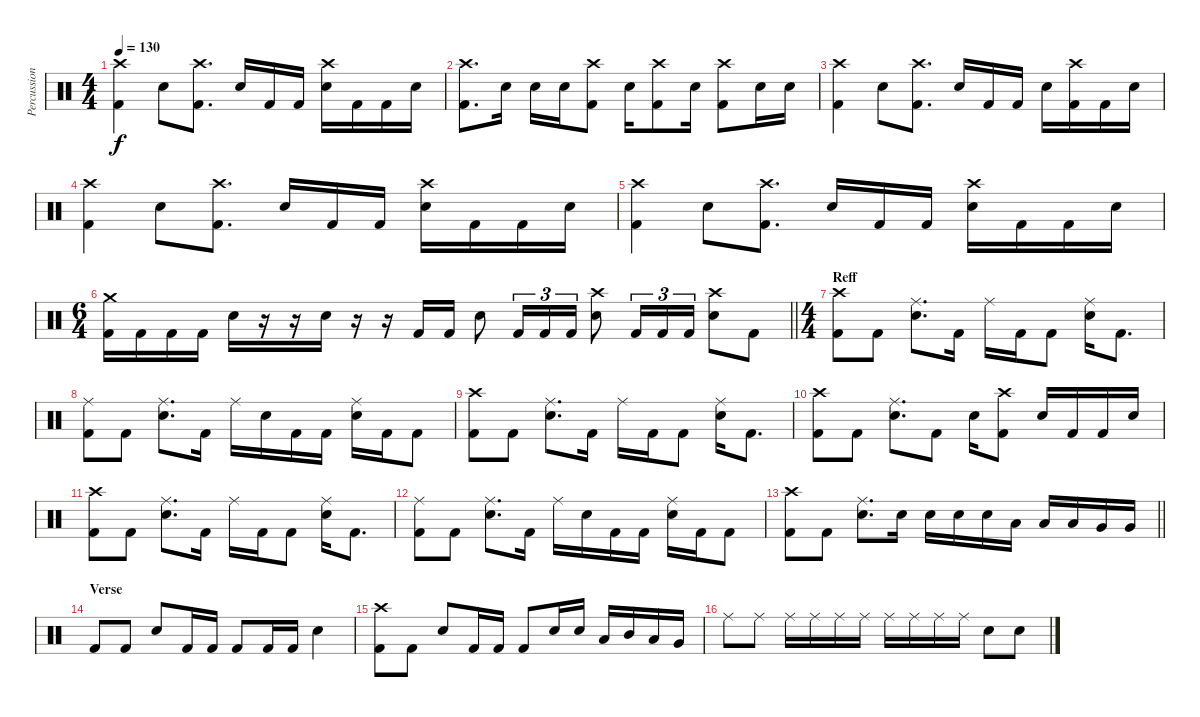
\track ("Percussion" "Percussion") {instrument percussion}
\staff {score}
\articulation defaults
\ts (4 4)
\tempo 130
\clef neutral
\ks c
("Kick (hit) 2" "Crash high (hit)").4{dy f} "Snare (hit) 2".8 ("Kick (hit) 2" "Crash high (hit)").8{d} "Snare (hit) 2".16 "Kick (hit) 2".16 "Kick (hit) 2".16 ("Snare (hit) 2" "Crash high (hit)").16 "Kick (hit) 2".16 "Kick (hit) 2".16 "Snare (hit) 2".16 |
("Kick (hit) 2" "Crash high (hit)").8{d} "Snare (hit) 2".16 "Snare (hit) 2".16 "Snare (hit) 2".16 ("Kick (hit) 2" "Crash high (hit)").8 "Snare (hit) 2".16 ("Kick (hit) 2" "Crash high (hit)").8 "Snare (hit) 2".16 ("Kick (hit) 2" "Crash high (hit)").8 "Snare (hit) 2".16 "Snare (hit) 2".16 |
("Kick (hit) 2" "Crash high (hit)").4 "Snare (hit) 2".8 ("Kick (hit) 2" "Crash high (hit)").8{d} "Snare (hit) 2".16 "Kick (hit) 2".16 "Kick (hit) 2".16 "Snare (hit) 2".16 ("Kick (hit) 2" "Crash high (hit)").16 "Kick (hit) 2".16 "Snare (hit) 2".16 |
("Kick (hit) 2" "Crash high (hit)").4 "Snare (hit) 2".8 ("Kick (hit) 2" "Crash high (hit)").8{d} "Snare (hit) 2".16 "Kick (hit) 2".16 "Kick (hit) 2".16 ("Snare (hit) 2" "Crash high (hit)").16 "Kick (hit) 2".16 "Kick (hit) 2".16 "Snare (hit) 2".16 |
("Kick (hit) 2" "Crash high (hit)").4 "Snare (hit) 2".8 ("Kick (hit) 2" "Crash high (hit)").8{d} "Snare (hit) 2".16 "Kick (hit) 2".16 "Kick (hit) 2".16 ("Snare (hit) 2" "Crash high (hit)").16 "Kick (hit) 2".16 "Kick (hit) 2".16 "Snare (hit) 2".16 |
\ts (6 4)
\barLineRight lightlight
("Kick (hit) 2" "Crash medium (hit)").16 "Kick (hit) 2".16 "Kick (hit) 2".16 "Kick (hit) 2".16 "Snare (hit) 2".16 r.16 r.16 "Snare (hit) 2".16 r.16 r.16 "Kick (hit) 2".16 "Kick (hit) 2".16 "Snare (hit) 2".8 "Kick (hit) 2".16{tu (3 2)} "Kick (hit) 2".16{tu (3 2)} "Kick (hit) 2".16{tu (3 2)} ("Snare (hit) 2" "Crash high (hit)").8 "Kick (hit) 2".16{tu (3 2)} "Kick (hit) 2".16{tu (3 2)} "Kick (hit) 2".16{tu (3 2)} ("Snare (hit) 2" "Crash high (hit)").8 "Kick (hit) 2".8 |
\ts (4 4)
\section ("" "Reff")
("Kick (hit) 2" "Crash high (hit)").8 "Kick (hit) 2".8 ("Snare (hit) 2" "Ride (middle)").8{d} "Kick (hit) 2".16 "Ride (middle)".16 "Kick (hit) 2".16 "Kick (hit) 2".8 ("Snare (hit) 2" "Ride (middle)").16 "Kick (hit) 2".8{d} |
("Kick (hit) 2" "Ride (middle)").8 "Kick (hit) 2".8 ("Snare (hit) 2" "Ride (middle)").8{d} "Kick (hit) 2".16 "Ride (middle)".16 "Snare (hit) 2".16 "Kick (hit) 2".16 "Kick (hit) 2".16 ("Snare (hit) 2" "Ride (middle)").16 "Kick (hit) 2".16 "Kick (hit) 2".8 |
("Kick (hit) 2" "Crash high (hit)").8 "Kick (hit) 2".8 ("Snare (hit) 2" "Ride (middle)").8{d} "Kick (hit) 2".16 "Ride (middle)".16 "Kick (hit) 2".16 "Kick (hit) 2".8 ("Snare (hit) 2" "Ride (middle)").16 "Kick (hit) 2".8{d} |
("Kick (hit) 2" "Crash high (hit)").8 "Kick (hit) 2".8 ("Snare (hit) 2" "Ride (middle)").8{d} "Kick (hit) 2".8 "Snare (hit) 2".16 ("Kick (hit) 2" "Crash high (hit)").8 "Snare (hit) 2".16 "Kick (hit) 2".16 "Kick (hit) 2".16 "Snare (hit) 2".16 |
("Kick (hit) 2" "Crash high (hit)").8 "Kick (hit) 2".8 ("Snare (hit) 2" "Ride (middle)").8{d} "Kick (hit) 2".16 "Ride (middle)".16 "Kick (hit) 2".16 "Kick (hit) 2".8 ("Snare (hit) 2" "Ride (middle)").16 "Kick (hit) 2".8{d} |
("Kick (hit) 2" "Ride (middle)").8 "Kick (hit) 2".8 ("Snare (hit) 2" "Ride (middle)").8{d} "Kick (hit) 2".16 "Ride (middle)".16 "Snare (hit) 2".16 "Kick (hit) 2".16 "Kick (hit) 2".16 ("Snare (hit) 2" "Ride (middle)").16 "Kick (hit) 2".16 "Kick (hit) 2".8 |
\barLineRight lightlight
("Kick (hit) 2" "Crash high (hit)").8 "Kick (hit) 2".8 ("Snare (hit) 2" "Ride (middle)").8{d} "Snare (hit) 2".16 "Snare (hit) 2".16 "Snare (hit) 2".16 "Snare (hit) 2".16 "Low Tom (hit)".16 "Low Tom (hit)".16 "Low Tom (hit)".16 "Very Low Tom (hit)".16 "Very Low Tom (hit)".16 |
\section ("" "Verse")
"Kick (hit) 2".8 "Kick (hit) 2".8 "Snare (hit) 2".8 "Kick (hit) 2".16 "Kick (hit) 2".16 "Kick (hit) 2".8 "Kick (hit) 2".16 "Kick (hit) 2".16 "Snare (hit) 2".4 |
("Kick (hit) 2" "Crash high (hit)").8 "Kick (hit) 2".8 "Snare (hit) 2".8 "Kick (hit) 2".16 "Kick (hit) 2".16 "Kick (hit) 2".8 "Snare (hit) 2".16 "Snare (hit) 2".16 "Low Tom (hit)".16 "Mid Tom (hit)".16 "Low Tom (hit)".16 "Very Low Tom (hit)".16 |
"Ride (middle)".8 "Ride (middle)".8 "Ride (middle)".16 "Ride (middle)".16 "Ride (middle)".16 "Ride (middle)".16 "Ride (middle)".16 "Ride (middle)".16 "Ride (middle)".16 "Ride (middle)".16 "Snare (hit) 2".8 "Snare (hit) 2".8
